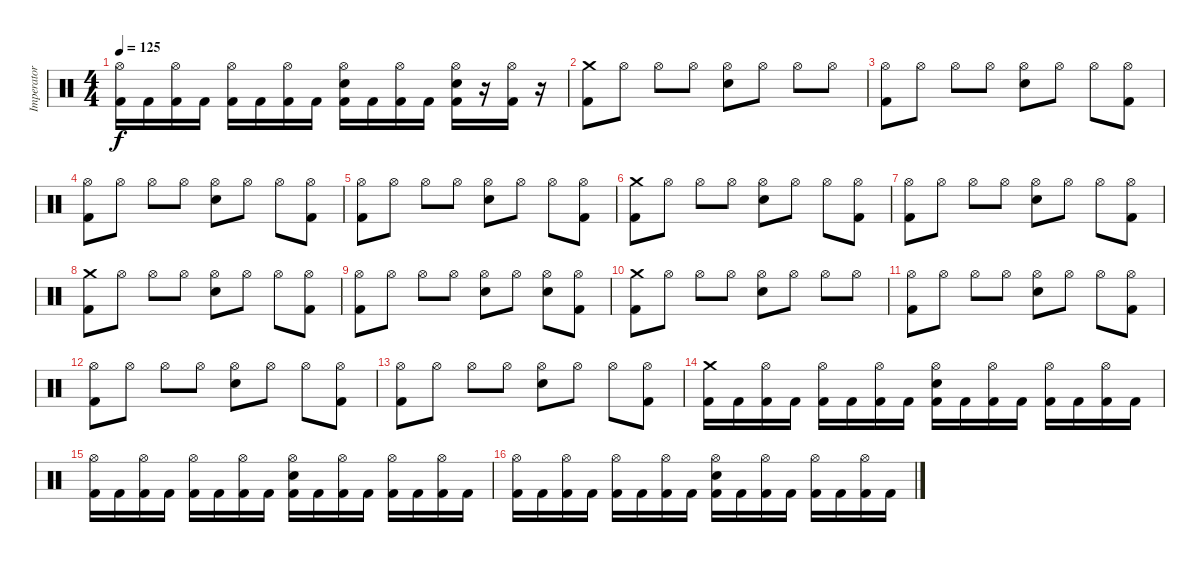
\track ("Imperator" "Imperator") {instrument percussion}
\staff {score}
\articulation defaults
\ts (4 4)
\tempo 125
\clef neutral
\ks c
("Hi-Hat (open)" "Kick (hit) 2").16{dy f} "Kick (hit) 2".16 ("Hi-Hat (open)" "Kick (hit) 2").16 "Kick (hit) 2".16 ("Hi-Hat (open)" "Kick (hit) 2").16 "Kick (hit) 2".16 ("Hi-Hat (open)" "Kick (hit) 2").16 "Kick (hit) 2".16 ("Hi-Hat (open)" "Snare (hit) 2" "Kick (hit) 2").16 "Kick (hit) 2".16 ("Hi-Hat (open)" "Kick (hit) 2").16 "Kick (hit) 2".16 ("Hi-Hat (open)" "Snare (hit) 2" "Kick (hit) 2").16 r.16 ("Hi-Hat (open)" "Kick (hit) 2").16 r.16 |
("Crash medium (hit)" "Kick (hit) 2").8 "Hi-Hat (open)".8 "Hi-Hat (open)".8 "Hi-Hat (open)".8 ("Hi-Hat (open)" "Snare (hit) 2").8 "Hi-Hat (open)".8 "Hi-Hat (open)".8 "Hi-Hat (open)".8 |
("Hi-Hat (open)" "Kick (hit) 2").8 "Hi-Hat (open)".8 "Hi-Hat (open)".8 "Hi-Hat (open)".8 ("Hi-Hat (open)" "Snare (hit) 2").8 "Hi-Hat (open)".8 "Hi-Hat (open)".8 ("Hi-Hat (open)" "Kick (hit) 2").8 |
("Hi-Hat (open)" "Kick (hit) 2").8 "Hi-Hat (open)".8 "Hi-Hat (open)".8 "Hi-Hat (open)".8 ("Hi-Hat (open)" "Snare (hit) 2").8 "Hi-Hat (open)".8 "Hi-Hat (open)".8 ("Hi-Hat (open)" "Kick (hit) 2").8 |
("Hi-Hat (open)" "Kick (hit) 2").8 "Hi-Hat (open)".8 "Hi-Hat (open)".8 "Hi-Hat (open)".8 ("Hi-Hat (open)" "Snare (hit) 2").8 "Hi-Hat (open)".8 "Hi-Hat (open)".8 ("Hi-Hat (open)" "Kick (hit) 2").8 |
("Crash medium (hit)" "Kick (hit) 2").8 "Hi-Hat (open)".8 "Hi-Hat (open)".8 "Hi-Hat (open)".8 ("Hi-Hat (open)" "Snare (hit) 2").8 "Hi-Hat (open)".8 "Hi-Hat (open)".8 ("Hi-Hat (open)" "Kick (hit) 2").8 |
("Hi-Hat (open)" "Kick (hit) 2").8 "Hi-Hat (open)".8 "Hi-Hat (open)".8 "Hi-Hat (open)".8 ("Hi-Hat (open)" "Snare (hit) 2").8 "Hi-Hat (open)".8 "Hi-Hat (open)".8 ("Hi-Hat (open)" "Kick (hit) 2").8 |
("Crash medium (hit)" "Kick (hit) 2").8 "Hi-Hat (open)".8 "Hi-Hat (open)".8 "Hi-Hat (open)".8 ("Hi-Hat (open)" "Snare (hit) 2").8 "Hi-Hat (open)".8 "Hi-Hat (open)".8 ("Hi-Hat (open)" "Kick (hit) 2").8 |
("Hi-Hat (open)" "Kick (hit) 2").8 "Hi-Hat (open)".8 "Hi-Hat (open)".8 "Hi-Hat (open)".8 ("Hi-Hat (open)" "Snare (hit) 2").8 "Hi-Hat (open)".8 ("Hi-Hat (open)" "Snare (hit) 2").8 ("Hi-Hat (open)" "Kick (hit) 2").8 |
("Crash medium (hit)" "Kick (hit) 2").8 "Hi-Hat (open)".8 "Hi-Hat (open)".8 "Hi-Hat (open)".8 ("Hi-Hat (open)" "Snare (hit) 2").8 "Hi-Hat (open)".8 "Hi-Hat (open)".8 "Hi-Hat (open)".8 |
("Hi-Hat (open)" "Kick (hit) 2").8 "Hi-Hat (open)".8 "Hi-Hat (open)".8 "Hi-Hat (open)".8 ("Hi-Hat (open)" "Snare (hit) 2").8 "Hi-Hat (open)".8 "Hi-Hat (open)".8 ("Hi-Hat (open)" "Kick (hit) 2").8 |
("Hi-Hat (open)" "Kick (hit) 2").8 "Hi-Hat (open)".8 "Hi-Hat (open)".8 "Hi-Hat (open)".8 ("Hi-Hat (open)" "Snare (hit) 2").8 "Hi-Hat (open)".8 "Hi-Hat (open)".8 ("Hi-Hat (open)" "Kick (hit) 2").8 |
("Hi-Hat (open)" "Kick (hit) 2").8 "Hi-Hat (open)".8 "Hi-Hat (open)".8 "Hi-Hat (open)".8 ("Hi-Hat (open)" "Snare (hit) 2").8 "Hi-Hat (open)".8 "Hi-Hat (open)".8 ("Hi-Hat (open)" "Kick (hit) 2").8 |
("Crash medium (hit)" "Kick (hit) 2").16 "Kick (hit) 2".16 ("Hi-Hat (open)" "Kick (hit) 2").16 "Kick (hit) 2".16 ("Hi-Hat (open)" "Kick (hit) 2").16 "Kick (hit) 2".16 ("Hi-Hat (open)" "Kick (hit) 2").16 "Kick (hit) 2".16 ("Hi-Hat (open)" "Snare (hit) 2" "Kick (hit) 2").16 "Kick (hit) 2".16 ("Hi-Hat (open)" "Kick (hit) 2").16 "Kick (hit) 2".16 ("Hi-Hat (open)" "Kick (hit) 2").16 "Kick (hit) 2".16 ("Hi-Hat (open)" "Kick (hit) 2").16 "Kick (hit) 2".16 |
("Hi-Hat (open)" "Kick (hit) 2").16 "Kick (hit) 2".16 ("Hi-Hat (open)" "Kick (hit) 2").16 "Kick (hit) 2".16 ("Hi-Hat (open)" "Kick (hit) 2").16 "Kick (hit) 2".16 ("Hi-Hat (open)" "Kick (hit) 2").16 "Kick (hit) 2".16 ("Hi-Hat (open)" "Snare (hit) 2" "Kick (hit) 2").16 "Kick (hit) 2".16 ("Hi-Hat (open)" "Kick (hit) 2").16 "Kick (hit) 2".16 ("Hi-Hat (open)" "Kick (hit) 2").16 "Kick (hit) 2".16 ("Hi-Hat (open)" "Kick (hit) 2").16 "Kick (hit) 2".16 |
("Hi-Hat (open)" "Kick (hit) 2").16 "Kick (hit) 2".16 ("Hi-Hat (open)" "Kick (hit) 2").16 "Kick (hit) 2".16 ("Hi-Hat (open)" "Kick (hit) 2").16 "Kick (hit) 2".16 ("Hi-Hat (open)" "Kick (hit) 2").16 "Kick (hit) 2".16 ("Hi-Hat (open)" "Snare (hit) 2" "Kick (hit) 2").16 "Kick (hit) 2".16 ("Hi-Hat (open)" "Kick (hit) 2").16 "Kick (hit) 2".16 ("Hi-Hat (open)" "Kick (hit) 2").16 "Kick (hit) 2".16 ("Hi-Hat (open)" "Kick (hit) 2").16 "Kick (hit) 2".16
